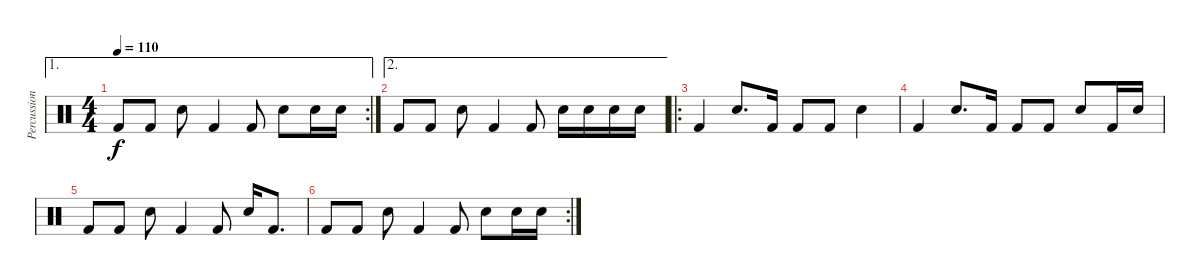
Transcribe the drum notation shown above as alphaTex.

\track ("Percussion" "Percussion") {instrument percussion}
\staff {score}
\articulation defaults
\ae 1
\rc 2
\ts (4 4)
\tempo 110
\clef neutral
\ks c "Kick (hit) 2".8{dy f} "Kick (hit) 2".8 "Snare (hit) 2".8 "Kick (hit) 2".4 "Kick (hit) 2".8 "Snare (hit) 2".8 "Snare (hit) 2".16 "Snare (hit) 2".16
|
\ae 2 "Kick (hit) 2".8 "Kick (hit) 2".8 "Snare (hit) 2".8 "Kick (hit) 2".4 "Kick (hit) 2".8 "Snare (hit) 2".16 "Snare (hit) 2".16 "Snare (hit) 2".16 "Snare (hit) 2".16
|
\ro "Kick (hit) 2".4 "Snare (hit) 2".8{d} "Kick (hit) 2".16 "Kick (hit) 2".8 "Kick (hit) 2".8 "Snare (hit) 2".4
|
"Kick (hit) 2".4 "Snare (hit) 2".8{d} "Kick (hit) 2".16 "Kick (hit) 2".8 "Kick (hit) 2".8 "Snare (hit) 2".8 "Kick (hit) 2".16 "Snare (hit) 2".16 |
"Kick (hit) 2".8 "Kick (hit) 2".8 "Snare (hit) 2".8 "Kick (hit) 2".4 "Kick (hit) 2".8 "Snare (hit) 2".16 "Kick (hit) 2".8{d} |
\rc 2 "Kick (hit) 2".8 "Kick (hit) 2".8 "Snare (hit) 2".8 "Kick (hit) 2".4 "Kick (hit) 2".8 "Snare (hit) 2".8 "Snare (hit) 2".16 "Snare (hit) 2".16
